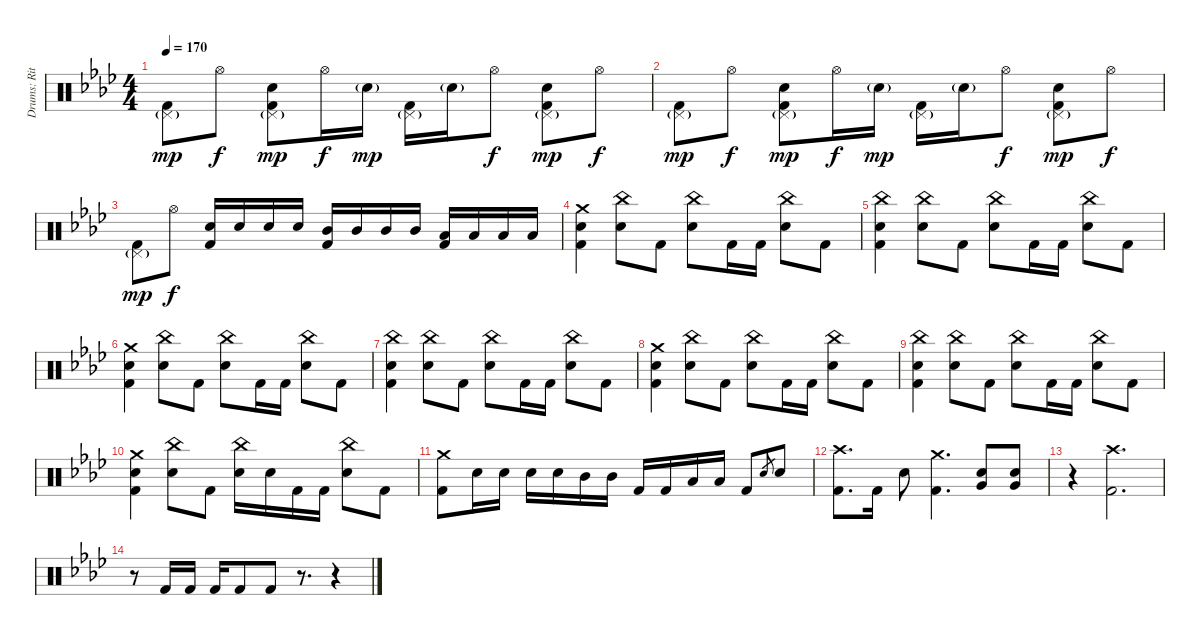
\track ("Drums: Ritsu Tainaka" "Drums: Rit") {instrument percussion}
\staff {score}
\articulation defaults
\ts (4 4)
\tempo 170
\clef neutral
\ks fminor
("Pedal Hi-Hat (hit)"{g} "Kick (hit) 2").8{dy mp} "Hi-Hat (open)".8{dy f} ("Pedal Hi-Hat (hit)"{g} "Electric Snare (hit)" "Kick (hit) 2").8{dy mp} "Hi-Hat (open)".16{dy f} "Electric Snare (hit)"{g}.16{dy mp} ("Pedal Hi-Hat (hit)"{g} "Kick (hit) 2").16 "Electric Snare (hit)"{g}.16 "Hi-Hat (open)".8{dy f} ("Pedal Hi-Hat (hit)"{g} "Electric Snare (hit)" "Kick (hit) 2").8{dy mp} "Hi-Hat (open)".8{dy f} |
("Pedal Hi-Hat (hit)"{g} "Kick (hit) 2").8{dy mp} "Hi-Hat (open)".8{dy f} ("Pedal Hi-Hat (hit)"{g} "Electric Snare (hit)" "Kick (hit) 2").8{dy mp} "Hi-Hat (open)".16{dy f} "Electric Snare (hit)"{g}.16{dy mp} ("Pedal Hi-Hat (hit)"{g} "Kick (hit) 2").16 "Electric Snare (hit)"{g}.16 "Hi-Hat (open)".8{dy f} ("Pedal Hi-Hat (hit)"{g} "Electric Snare (hit)" "Kick (hit) 2").8{dy mp} "Hi-Hat (open)".8{dy f} |
("Pedal Hi-Hat (hit)"{g} "Kick (hit) 2").8{dy mp} "Hi-Hat (open)".8{dy f} ("Electric Snare (hit)" "Kick (hit) 2").16 "Electric Snare (hit)".16 "Electric Snare (hit)".16 "Electric Snare (hit)".16 ("Mid Tom (hit)" "Kick (hit) 2").16 "Mid Tom (hit)".16 "Mid Tom (hit)".16 "Mid Tom (hit)".16 ("Low Tom (hit)" "Kick (hit) 2").16 "Low Tom (hit)".16 "Low Tom (hit)".16 "Low Tom (hit)".16 |
("Crash medium (hit)" "Electric Snare (hit)" "Kick (hit) 2").4 ("China (hit)" "Electric Snare (hit)").8 "Kick (hit) 2".8 ("China (hit)" "Electric Snare (hit)").8 "Kick (hit) 2".16 "Kick (hit) 2".16 ("China (hit)" "Electric Snare (hit)").8 "Kick (hit) 2".8 |
("China (hit)" "Electric Snare (hit)" "Kick (hit) 2").4 ("China (hit)" "Electric Snare (hit)").8 "Kick (hit) 2".8 ("China (hit)" "Electric Snare (hit)").8 "Kick (hit) 2".16 "Kick (hit) 2".16 ("China (hit)" "Electric Snare (hit)").8 "Kick (hit) 2".8 |
("Crash medium (hit)" "Electric Snare (hit)" "Kick (hit) 2").4 ("China (hit)" "Electric Snare (hit)").8 "Kick (hit) 2".8 ("China (hit)" "Electric Snare (hit)").8 "Kick (hit) 2".16 "Kick (hit) 2".16 ("China (hit)" "Electric Snare (hit)").8 "Kick (hit) 2".8 |
("China (hit)" "Electric Snare (hit)" "Kick (hit) 2").4 ("China (hit)" "Electric Snare (hit)").8 "Kick (hit) 2".8 ("China (hit)" "Electric Snare (hit)").8 "Kick (hit) 2".16 "Kick (hit) 2".16 ("China (hit)" "Electric Snare (hit)").8 "Kick (hit) 2".8 |
("Crash medium (hit)" "Electric Snare (hit)" "Kick (hit) 2").4 ("China (hit)" "Electric Snare (hit)").8 "Kick (hit) 2".8 ("China (hit)" "Electric Snare (hit)").8 "Kick (hit) 2".16 "Kick (hit) 2".16 ("China (hit)" "Electric Snare (hit)").8 "Kick (hit) 2".8 |
("China (hit)" "Electric Snare (hit)" "Kick (hit) 2").4 ("China (hit)" "Electric Snare (hit)").8 "Kick (hit) 2".8 ("China (hit)" "Electric Snare (hit)").8 "Kick (hit) 2".16 "Kick (hit) 2".16 ("China (hit)" "Electric Snare (hit)").8 "Kick (hit) 2".8 |
("Crash medium (hit)" "Electric Snare (hit)" "Kick (hit) 2").4 ("China (hit)" "Electric Snare (hit)").8 "Kick (hit) 2".8 ("China (hit)" "Electric Snare (hit)").16 "Electric Snare (hit)".16 "Kick (hit) 2".16 "Kick (hit) 2".16 ("China (hit)" "Electric Snare (hit)").8 "Kick (hit) 2".8 |
("Crash medium (hit)" "Kick (hit) 2").8 "Electric Snare (hit)".16 "Electric Snare (hit)".16 "Electric Snare (hit)".16 "Electric Snare (hit)".16 "Mid Tom (hit)".16 "Mid Tom (hit)".16 "Kick (hit) 2".16 "Kick (hit) 2".16 "Low Tom (hit)".16 "Low Tom (hit)".16 "Kick (hit) 2".8 "Electric Snare (hit)".8{gr} "Electric Snare (hit)".8 |
("Crash high (hit)" "Kick (hit) 2").8{d} "Kick (hit) 2".16 "Electric Snare (hit)".8 ("Crash medium (hit)" "Kick (hit) 2").4{d} ("Electric Snare (hit)" "Very Low Tom (hit)").8 ("Electric Snare (hit)" "Very Low Tom (hit)").8 |
r.4 ("Crash high (hit)" "Kick (hit) 2").2{d} |
r.8 "Kick (hit) 2".16 "Kick (hit) 2".16 "Kick (hit) 2".16 "Kick (hit) 2".8 "Kick (hit) 2".8 r.8{d} r.4
